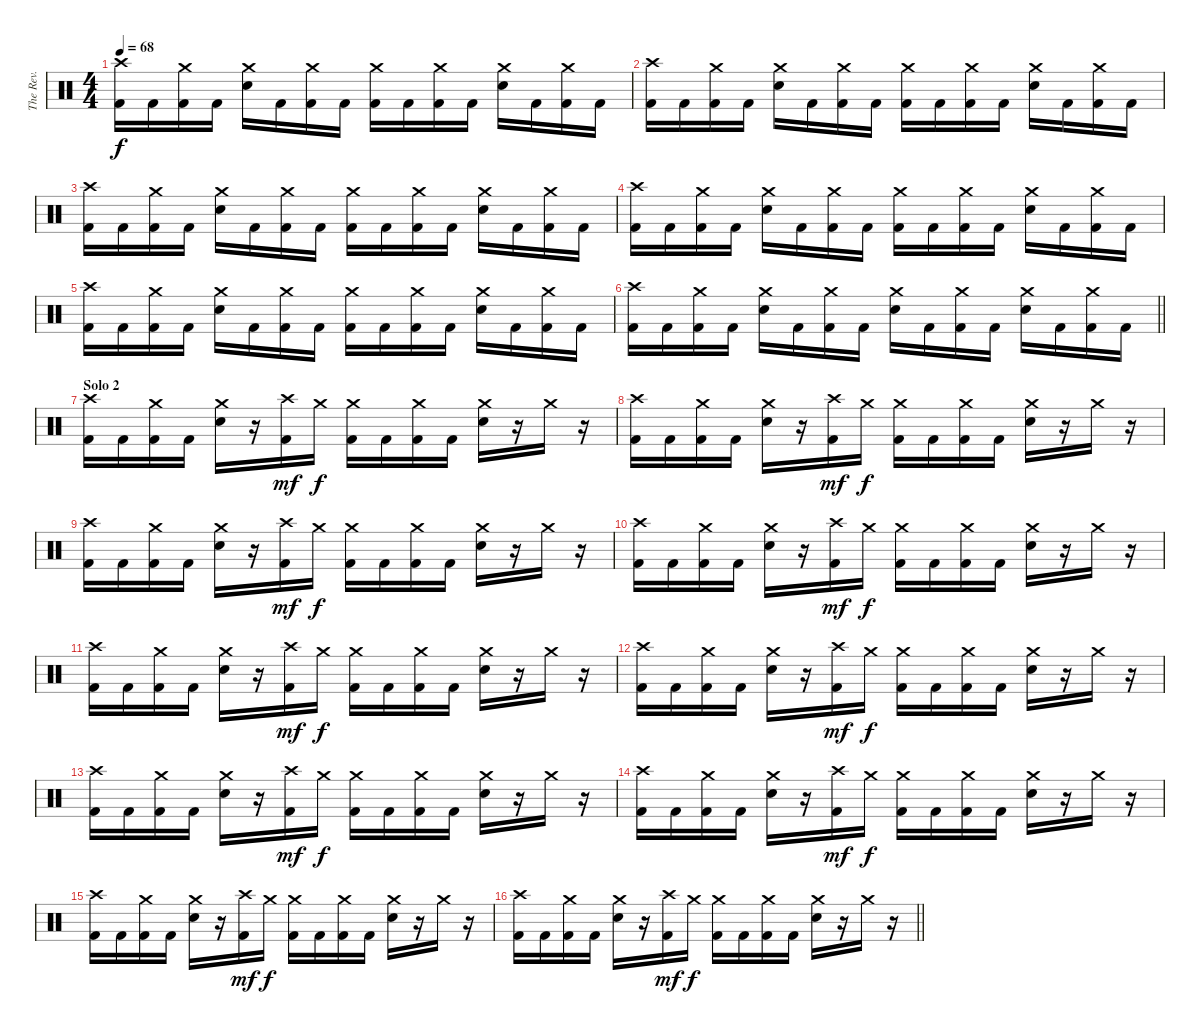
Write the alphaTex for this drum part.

\track ("The Rev." "The Rev.") {instrument percussion}
\staff {score}
\articulation defaults
\ts (4 4)
\tempo 68
\clef neutral
\ks c
("Crash high (hit)" "Kick (hit) 2").16{dy f} "Kick (hit) 2".16 ("Crash medium (hit)" "Kick (hit) 2").16 "Kick (hit) 2".16 ("Crash medium (hit)" "Electric Snare (hit)").16 "Kick (hit) 2".16 ("Crash medium (hit)" "Kick (hit) 2").16 "Kick (hit) 2".16 ("Crash medium (hit)" "Kick (hit) 2").16 "Kick (hit) 2".16 ("Crash medium (hit)" "Kick (hit) 2").16 "Kick (hit) 2".16 ("Crash medium (hit)" "Electric Snare (hit)").16 "Kick (hit) 2".16 ("Crash medium (hit)" "Kick (hit) 2").16 "Kick (hit) 2".16 |
("Crash high (hit)" "Kick (hit) 2").16 "Kick (hit) 2".16 ("Crash medium (hit)" "Kick (hit) 2").16 "Kick (hit) 2".16 ("Crash medium (hit)" "Electric Snare (hit)").16 "Kick (hit) 2".16 ("Crash medium (hit)" "Kick (hit) 2").16 "Kick (hit) 2".16 ("Crash medium (hit)" "Kick (hit) 2").16 "Kick (hit) 2".16 ("Crash medium (hit)" "Kick (hit) 2").16 "Kick (hit) 2".16 ("Crash medium (hit)" "Electric Snare (hit)").16 "Kick (hit) 2".16 ("Crash medium (hit)" "Kick (hit) 2").16 "Kick (hit) 2".16 |
("Crash high (hit)" "Kick (hit) 2").16 "Kick (hit) 2".16 ("Crash medium (hit)" "Kick (hit) 2").16 "Kick (hit) 2".16 ("Crash medium (hit)" "Electric Snare (hit)").16 "Kick (hit) 2".16 ("Crash medium (hit)" "Kick (hit) 2").16 "Kick (hit) 2".16 ("Crash medium (hit)" "Kick (hit) 2").16 "Kick (hit) 2".16 ("Crash medium (hit)" "Kick (hit) 2").16 "Kick (hit) 2".16 ("Crash medium (hit)" "Electric Snare (hit)").16 "Kick (hit) 2".16 ("Crash medium (hit)" "Kick (hit) 2").16 "Kick (hit) 2".16 |
("Crash high (hit)" "Kick (hit) 2").16 "Kick (hit) 2".16 ("Crash medium (hit)" "Kick (hit) 2").16 "Kick (hit) 2".16 ("Crash medium (hit)" "Electric Snare (hit)").16 "Kick (hit) 2".16 ("Crash medium (hit)" "Kick (hit) 2").16 "Kick (hit) 2".16 ("Crash medium (hit)" "Kick (hit) 2").16 "Kick (hit) 2".16 ("Crash medium (hit)" "Kick (hit) 2").16 "Kick (hit) 2".16 ("Crash medium (hit)" "Electric Snare (hit)").16 "Kick (hit) 2".16 ("Crash medium (hit)" "Kick (hit) 2").16 "Kick (hit) 2".16 |
("Crash high (hit)" "Kick (hit) 2").16 "Kick (hit) 2".16 ("Crash medium (hit)" "Kick (hit) 2").16 "Kick (hit) 2".16 ("Crash medium (hit)" "Electric Snare (hit)").16 "Kick (hit) 2".16 ("Crash medium (hit)" "Kick (hit) 2").16 "Kick (hit) 2".16 ("Crash medium (hit)" "Kick (hit) 2").16 "Kick (hit) 2".16 ("Crash medium (hit)" "Kick (hit) 2").16 "Kick (hit) 2".16 ("Crash medium (hit)" "Electric Snare (hit)").16 "Kick (hit) 2".16 ("Crash medium (hit)" "Kick (hit) 2").16 "Kick (hit) 2".16 |
\barLineRight lightlight
("Crash high (hit)" "Kick (hit) 2").16 "Kick (hit) 2".16 ("Crash medium (hit)" "Kick (hit) 2").16 "Kick (hit) 2".16 ("Crash medium (hit)" "Electric Snare (hit)").16 "Kick (hit) 2".16 ("Crash medium (hit)" "Kick (hit) 2").16 "Kick (hit) 2".16 ("Crash medium (hit)" "Electric Snare (hit)").16 "Kick (hit) 2".16 ("Crash medium (hit)" "Kick (hit) 2").16 "Kick (hit) 2".16 ("Crash medium (hit)" "Electric Snare (hit)").16 "Kick (hit) 2".16 ("Crash medium (hit)" "Kick (hit) 2").16 "Kick (hit) 2".16 |
\section ("" "Solo 2")
("Crash high (hit)" "Kick (hit) 2").16 "Kick (hit) 2".16 ("Crash medium (hit)" "Kick (hit) 2").16 "Kick (hit) 2".16 ("Crash medium (hit)" "Electric Snare (hit)").16 r.16 ("Crash high (hit)" "Kick (hit) 2").16{dy mf} "Crash medium (hit)".16{dy f} ("Crash medium (hit)" "Kick (hit) 2").16 "Kick (hit) 2".16 ("Crash medium (hit)" "Kick (hit) 2").16 "Kick (hit) 2".16 ("Crash medium (hit)" "Electric Snare (hit)").16 r.16 "Crash medium (hit)".16 r.16 |
("Crash high (hit)" "Kick (hit) 2").16 "Kick (hit) 2".16 ("Crash medium (hit)" "Kick (hit) 2").16 "Kick (hit) 2".16 ("Crash medium (hit)" "Electric Snare (hit)").16 r.16 ("Crash high (hit)" "Kick (hit) 2").16{dy mf} "Crash medium (hit)".16{dy f} ("Crash medium (hit)" "Kick (hit) 2").16 "Kick (hit) 2".16 ("Crash medium (hit)" "Kick (hit) 2").16 "Kick (hit) 2".16 ("Crash medium (hit)" "Electric Snare (hit)").16 r.16 "Crash medium (hit)".16 r.16 |
("Crash high (hit)" "Kick (hit) 2").16 "Kick (hit) 2".16 ("Crash medium (hit)" "Kick (hit) 2").16 "Kick (hit) 2".16 ("Crash medium (hit)" "Electric Snare (hit)").16 r.16 ("Crash high (hit)" "Kick (hit) 2").16{dy mf} "Crash medium (hit)".16{dy f} ("Crash medium (hit)" "Kick (hit) 2").16 "Kick (hit) 2".16 ("Crash medium (hit)" "Kick (hit) 2").16 "Kick (hit) 2".16 ("Crash medium (hit)" "Electric Snare (hit)").16 r.16 "Crash medium (hit)".16 r.16 |
("Crash high (hit)" "Kick (hit) 2").16 "Kick (hit) 2".16 ("Crash medium (hit)" "Kick (hit) 2").16 "Kick (hit) 2".16 ("Crash medium (hit)" "Electric Snare (hit)").16 r.16 ("Crash high (hit)" "Kick (hit) 2").16{dy mf} "Crash medium (hit)".16{dy f} ("Crash medium (hit)" "Kick (hit) 2").16 "Kick (hit) 2".16 ("Crash medium (hit)" "Kick (hit) 2").16 "Kick (hit) 2".16 ("Crash medium (hit)" "Electric Snare (hit)").16 r.16 "Crash medium (hit)".16 r.16 |
("Crash high (hit)" "Kick (hit) 2").16 "Kick (hit) 2".16 ("Crash medium (hit)" "Kick (hit) 2").16 "Kick (hit) 2".16 ("Crash medium (hit)" "Electric Snare (hit)").16 r.16 ("Crash high (hit)" "Kick (hit) 2").16{dy mf} "Crash medium (hit)".16{dy f} ("Crash medium (hit)" "Kick (hit) 2").16 "Kick (hit) 2".16 ("Crash medium (hit)" "Kick (hit) 2").16 "Kick (hit) 2".16 ("Crash medium (hit)" "Electric Snare (hit)").16 r.16 "Crash medium (hit)".16 r.16 |
("Crash high (hit)" "Kick (hit) 2").16 "Kick (hit) 2".16 ("Crash medium (hit)" "Kick (hit) 2").16 "Kick (hit) 2".16 ("Crash medium (hit)" "Electric Snare (hit)").16 r.16 ("Crash high (hit)" "Kick (hit) 2").16{dy mf} "Crash medium (hit)".16{dy f} ("Crash medium (hit)" "Kick (hit) 2").16 "Kick (hit) 2".16 ("Crash medium (hit)" "Kick (hit) 2").16 "Kick (hit) 2".16 ("Crash medium (hit)" "Electric Snare (hit)").16 r.16 "Crash medium (hit)".16 r.16 |
("Crash high (hit)" "Kick (hit) 2").16 "Kick (hit) 2".16 ("Crash medium (hit)" "Kick (hit) 2").16 "Kick (hit) 2".16 ("Crash medium (hit)" "Electric Snare (hit)").16 r.16 ("Crash high (hit)" "Kick (hit) 2").16{dy mf} "Crash medium (hit)".16{dy f} ("Crash medium (hit)" "Kick (hit) 2").16 "Kick (hit) 2".16 ("Crash medium (hit)" "Kick (hit) 2").16 "Kick (hit) 2".16 ("Crash medium (hit)" "Electric Snare (hit)").16 r.16 "Crash medium (hit)".16 r.16 |
("Crash high (hit)" "Kick (hit) 2").16 "Kick (hit) 2".16 ("Crash medium (hit)" "Kick (hit) 2").16 "Kick (hit) 2".16 ("Crash medium (hit)" "Electric Snare (hit)").16 r.16 ("Crash high (hit)" "Kick (hit) 2").16{dy mf} "Crash medium (hit)".16{dy f} ("Crash medium (hit)" "Kick (hit) 2").16 "Kick (hit) 2".16 ("Crash medium (hit)" "Kick (hit) 2").16 "Kick (hit) 2".16 ("Crash medium (hit)" "Electric Snare (hit)").16 r.16 "Crash medium (hit)".16 r.16 |
("Crash high (hit)" "Kick (hit) 2").16 "Kick (hit) 2".16 ("Crash medium (hit)" "Kick (hit) 2").16 "Kick (hit) 2".16 ("Crash medium (hit)" "Electric Snare (hit)").16 r.16 ("Crash high (hit)" "Kick (hit) 2").16{dy mf} "Crash medium (hit)".16{dy f} ("Crash medium (hit)" "Kick (hit) 2").16 "Kick (hit) 2".16 ("Crash medium (hit)" "Kick (hit) 2").16 "Kick (hit) 2".16 ("Crash medium (hit)" "Electric Snare (hit)").16 r.16 "Crash medium (hit)".16 r.16 |
\barLineRight lightlight
("Crash high (hit)" "Kick (hit) 2").16 "Kick (hit) 2".16 ("Crash medium (hit)" "Kick (hit) 2").16 "Kick (hit) 2".16 ("Crash medium (hit)" "Electric Snare (hit)").16 r.16 ("Crash high (hit)" "Kick (hit) 2").16{dy mf} "Crash medium (hit)".16{dy f} ("Crash medium (hit)" "Kick (hit) 2").16 "Kick (hit) 2".16 ("Crash medium (hit)" "Kick (hit) 2").16 "Kick (hit) 2".16 ("Crash medium (hit)" "Electric Snare (hit)").16 r.16 "Crash medium (hit)".16 r.16
